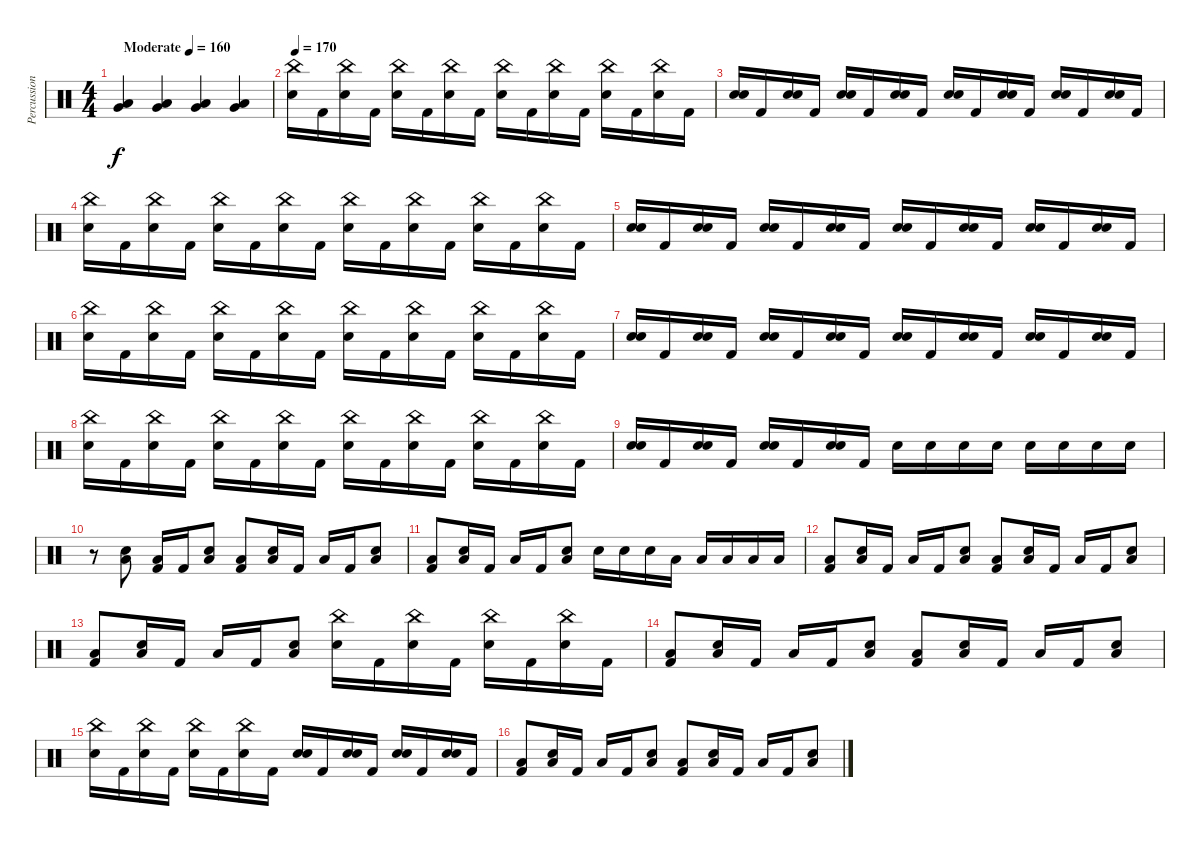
\track ("Percussion" "Percussion") {instrument percussion}
\staff {score}
\articulation defaults
\ts (4 4)
\tempo (160 "Moderate")
\clef neutral
\ks c
("Low Floor Tom (hit)" "Very Low Tom (hit)").4{dy f} ("Low Floor Tom (hit)" "Very Low Tom (hit)").4 ("Low Floor Tom (hit)" "Very Low Tom (hit)").4 ("Low Floor Tom (hit)" "Very Low Tom (hit)").4 |
\tempo 170
("China (hit)" "Snare (hit) 2").16 "Kick (hit) 2".16 ("China (hit)" "Snare (hit) 2").16 "Kick (hit) 2".16 ("China (hit)" "Snare (hit) 2").16 "Kick (hit) 2".16 ("China (hit)" "Snare (hit) 2").16 "Kick (hit) 2".16 ("China (hit)" "Snare (hit) 2").16 "Kick (hit) 2".16 ("China (hit)" "Snare (hit) 2").16 "Kick (hit) 2".16 ("China (hit)" "Snare (hit) 2").16 "Kick (hit) 2".16 ("China (hit)" "Snare (hit) 2").16 "Kick (hit) 2".16 |
("Snare (hit)" "Snare (hit) 2").16 "Kick (hit) 2".16 ("Snare (hit)" "Snare (hit) 2").16 "Kick (hit) 2".16 ("Snare (hit)" "Snare (hit) 2").16 "Kick (hit) 2".16 ("Snare (hit)" "Snare (hit) 2").16 "Kick (hit) 2".16 ("Snare (hit)" "Snare (hit) 2").16 "Kick (hit) 2".16 ("Snare (hit)" "Snare (hit) 2").16 "Kick (hit) 2".16 ("Snare (hit)" "Snare (hit) 2").16 "Kick (hit) 2".16 ("Snare (hit)" "Snare (hit) 2").16 "Kick (hit) 2".16 |
("China (hit)" "Snare (hit) 2").16 "Kick (hit) 2".16 ("China (hit)" "Snare (hit) 2").16 "Kick (hit) 2".16 ("China (hit)" "Snare (hit) 2").16 "Kick (hit) 2".16 ("China (hit)" "Snare (hit) 2").16 "Kick (hit) 2".16 ("China (hit)" "Snare (hit) 2").16 "Kick (hit) 2".16 ("China (hit)" "Snare (hit) 2").16 "Kick (hit) 2".16 ("China (hit)" "Snare (hit) 2").16 "Kick (hit) 2".16 ("China (hit)" "Snare (hit) 2").16 "Kick (hit) 2".16 |
("Snare (hit)" "Snare (hit) 2").16 "Kick (hit) 2".16 ("Snare (hit)" "Snare (hit) 2").16 "Kick (hit) 2".16 ("Snare (hit)" "Snare (hit) 2").16 "Kick (hit) 2".16 ("Snare (hit)" "Snare (hit) 2").16 "Kick (hit) 2".16 ("Snare (hit)" "Snare (hit) 2").16 "Kick (hit) 2".16 ("Snare (hit)" "Snare (hit) 2").16 "Kick (hit) 2".16 ("Snare (hit)" "Snare (hit) 2").16 "Kick (hit) 2".16 ("Snare (hit)" "Snare (hit) 2").16 "Kick (hit) 2".16 |
("China (hit)" "Snare (hit) 2").16 "Kick (hit) 2".16 ("China (hit)" "Snare (hit) 2").16 "Kick (hit) 2".16 ("China (hit)" "Snare (hit) 2").16 "Kick (hit) 2".16 ("China (hit)" "Snare (hit) 2").16 "Kick (hit) 2".16 ("China (hit)" "Snare (hit) 2").16 "Kick (hit) 2".16 ("China (hit)" "Snare (hit) 2").16 "Kick (hit) 2".16 ("China (hit)" "Snare (hit) 2").16 "Kick (hit) 2".16 ("China (hit)" "Snare (hit) 2").16 "Kick (hit) 2".16 |
("Snare (hit)" "Snare (hit) 2").16 "Kick (hit) 2".16 ("Snare (hit)" "Snare (hit) 2").16 "Kick (hit) 2".16 ("Snare (hit)" "Snare (hit) 2").16 "Kick (hit) 2".16 ("Snare (hit)" "Snare (hit) 2").16 "Kick (hit) 2".16 ("Snare (hit)" "Snare (hit) 2").16 "Kick (hit) 2".16 ("Snare (hit)" "Snare (hit) 2").16 "Kick (hit) 2".16 ("Snare (hit)" "Snare (hit) 2").16 "Kick (hit) 2".16 ("Snare (hit)" "Snare (hit) 2").16 "Kick (hit) 2".16 |
("China (hit)" "Snare (hit) 2").16 "Kick (hit) 2".16 ("China (hit)" "Snare (hit) 2").16 "Kick (hit) 2".16 ("China (hit)" "Snare (hit) 2").16 "Kick (hit) 2".16 ("China (hit)" "Snare (hit) 2").16 "Kick (hit) 2".16 ("China (hit)" "Snare (hit) 2").16 "Kick (hit) 2".16 ("China (hit)" "Snare (hit) 2").16 "Kick (hit) 2".16 ("China (hit)" "Snare (hit) 2").16 "Kick (hit) 2".16 ("China (hit)" "Snare (hit) 2").16 "Kick (hit) 2".16 |
("Snare (hit)" "Snare (hit) 2").16 "Kick (hit) 2".16 ("Snare (hit)" "Snare (hit) 2").16 "Kick (hit) 2".16 ("Snare (hit)" "Snare (hit) 2").16 "Kick (hit) 2".16 ("Snare (hit)" "Snare (hit) 2").16 "Kick (hit) 2".16 "Snare (hit) 2".16 "Snare (hit) 2".16 "Snare (hit) 2".16 "Snare (hit) 2".16 "Snare (hit) 2".16 "Snare (hit) 2".16 "Snare (hit) 2".16 "Snare (hit) 2".16 |
r.8 ("Low Floor Tom (hit)" "Snare (hit) 2").8 ("Low Floor Tom (hit)" "Kick (hit) 2").16 "Kick (hit) 2".16 ("Low Floor Tom (hit)" "Snare (hit) 2").8 ("Low Floor Tom (hit)" "Kick (hit) 2").8 ("Low Floor Tom (hit)" "Snare (hit) 2").16 "Kick (hit) 2".16 "Low Floor Tom (hit)".16 "Kick (hit) 2".16 ("Low Floor Tom (hit)" "Snare (hit) 2").8 |
("Low Floor Tom (hit)" "Kick (hit) 2").8 ("Low Floor Tom (hit)" "Snare (hit) 2").16 "Kick (hit) 2".16 "Low Floor Tom (hit)".16 "Kick (hit) 2".16 ("Low Floor Tom (hit)" "Snare (hit) 2").8 "Snare (hit) 2".16 "Snare (hit) 2".16 "Snare (hit) 2".16 "Low Floor Tom (hit)".16 "Low Floor Tom (hit)".16 "Low Floor Tom (hit)".16 "Low Floor Tom (hit)".16 "Low Floor Tom (hit)".16 |
("Low Floor Tom (hit)" "Kick (hit) 2").8 ("Low Floor Tom (hit)" "Snare (hit) 2").16 "Kick (hit) 2".16 "Low Floor Tom (hit)".16 "Kick (hit) 2".16 ("Low Floor Tom (hit)" "Snare (hit) 2").8 ("Low Floor Tom (hit)" "Kick (hit) 2").8 ("Low Floor Tom (hit)" "Snare (hit) 2").16 "Kick (hit) 2".16 "Low Floor Tom (hit)".16 "Kick (hit) 2".16 ("Low Floor Tom (hit)" "Snare (hit) 2").8 |
("Low Floor Tom (hit)" "Kick (hit) 2").8 ("Low Floor Tom (hit)" "Snare (hit) 2").16 "Kick (hit) 2".16 "Low Floor Tom (hit)".16 "Kick (hit) 2".16 ("Low Floor Tom (hit)" "Snare (hit) 2").8 ("China (hit)" "Snare (hit) 2").16 "Kick (hit) 2".16 ("China (hit)" "Snare (hit) 2").16 "Kick (hit) 2".16 ("China (hit)" "Snare (hit) 2").16 "Kick (hit) 2".16 ("China (hit)" "Snare (hit) 2").16 "Kick (hit) 2".16 |
("Low Floor Tom (hit)" "Kick (hit) 2").8 ("Low Floor Tom (hit)" "Snare (hit) 2").16 "Kick (hit) 2".16 "Low Floor Tom (hit)".16 "Kick (hit) 2".16 ("Low Floor Tom (hit)" "Snare (hit) 2").8 ("Low Floor Tom (hit)" "Kick (hit) 2").8 ("Low Floor Tom (hit)" "Snare (hit) 2").16 "Kick (hit) 2".16 "Low Floor Tom (hit)".16 "Kick (hit) 2".16 ("Low Floor Tom (hit)" "Snare (hit) 2").8 |
("China (hit)" "Snare (hit) 2").16 "Kick (hit) 2".16 ("China (hit)" "Snare (hit) 2").16 "Kick (hit) 2".16 ("China (hit)" "Snare (hit) 2").16 "Kick (hit) 2".16 ("China (hit)" "Snare (hit) 2").16 "Kick (hit) 2".16 ("Snare (hit)" "Snare (hit) 2").16 "Kick (hit) 2".16 ("Snare (hit)" "Snare (hit) 2").16 "Kick (hit) 2".16 ("Snare (hit)" "Snare (hit) 2").16 "Kick (hit) 2".16 ("Snare (hit)" "Snare (hit) 2").16 "Kick (hit) 2".16 |
("Low Floor Tom (hit)" "Kick (hit) 2").8 ("Low Floor Tom (hit)" "Snare (hit) 2").16 "Kick (hit) 2".16 "Low Floor Tom (hit)".16 "Kick (hit) 2".16 ("Low Floor Tom (hit)" "Snare (hit) 2").8 ("Low Floor Tom (hit)" "Kick (hit) 2").8 ("Low Floor Tom (hit)" "Snare (hit) 2").16 "Kick (hit) 2".16 "Low Floor Tom (hit)".16 "Kick (hit) 2".16 ("Low Floor Tom (hit)" "Snare (hit) 2").8
